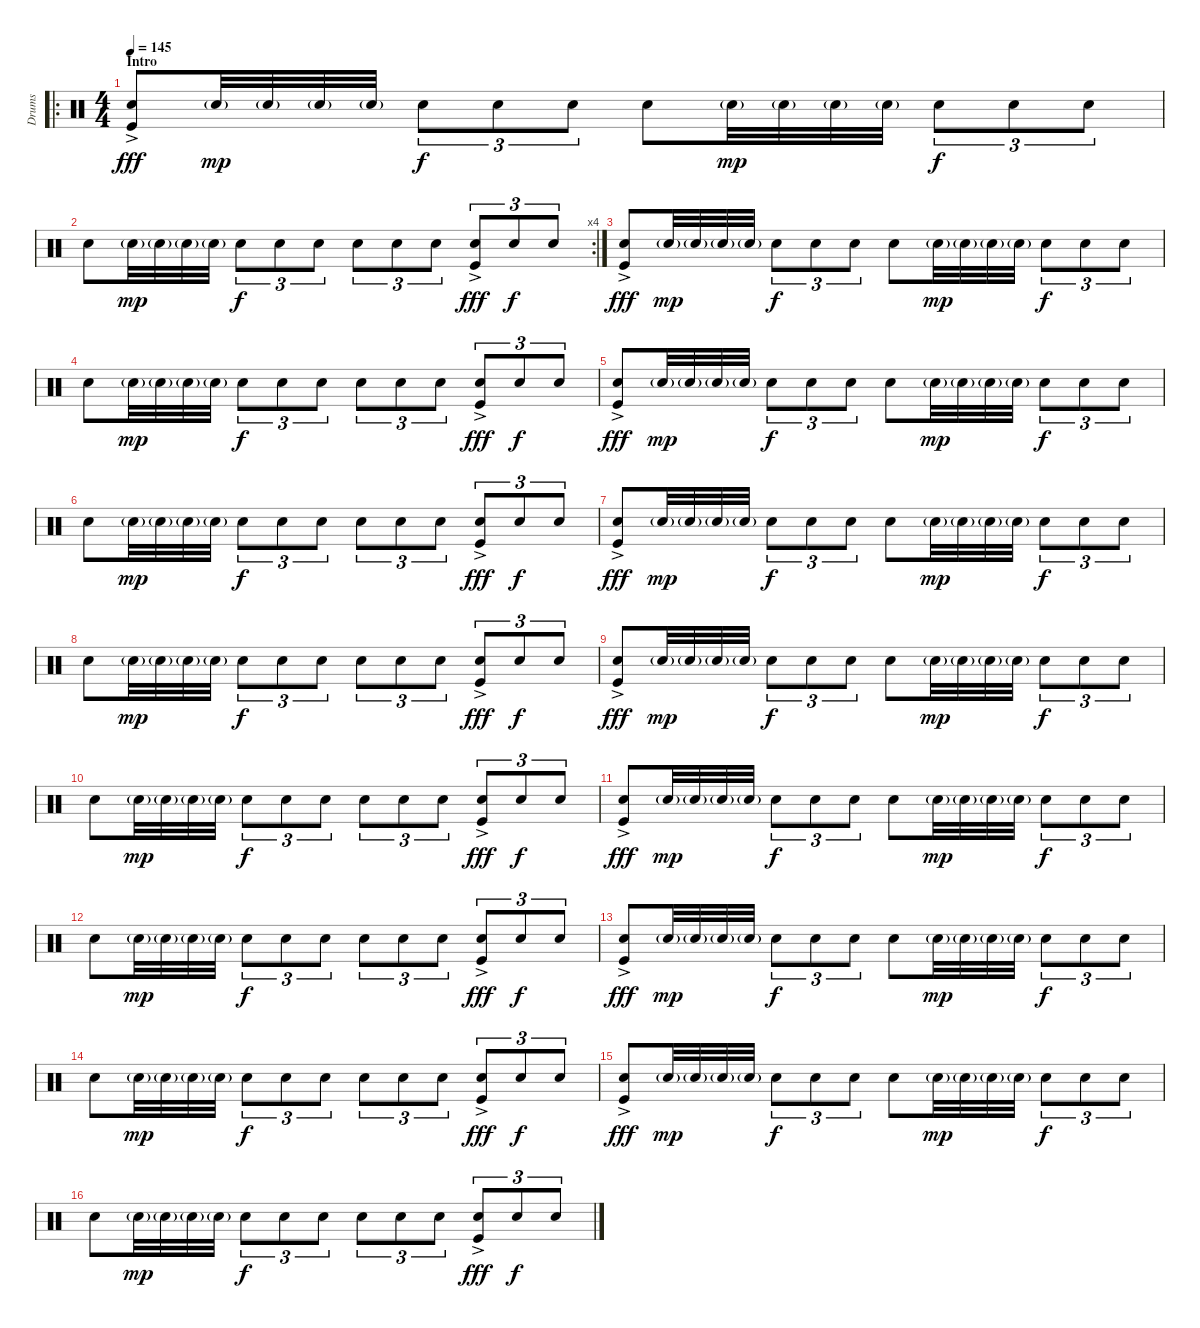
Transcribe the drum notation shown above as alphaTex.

\track ("Drums" "Drums") {instrument percussion}
\staff {score}
\articulation defaults
\ro
\ts (4 4)
\section ("" "Intro")
\tempo 145
\clef neutral
\ks c
("Snare (hit) 2"{ac} "Kick (hit)"{ac}).8{dy fff} "Snare (hit) 2"{g}.32{dy mp} "Snare (hit) 2"{g}.32 "Snare (hit) 2"{g}.32 "Snare (hit) 2"{g}.32 "Snare (hit) 2".8{tu (3 2) dy f} "Snare (hit) 2".8{tu (3 2)} "Snare (hit) 2".8{tu (3 2)} "Snare (hit) 2".8 "Snare (hit) 2"{g}.32{dy mp} "Snare (hit) 2"{g}.32 "Snare (hit) 2"{g}.32 "Snare (hit) 2"{g}.32 "Snare (hit) 2".8{tu (3 2) dy f} "Snare (hit) 2".8{tu (3 2)} "Snare (hit) 2".8{tu (3 2)} |
\rc 4 "Snare (hit) 2".8 "Snare (hit) 2"{g}.32{dy mp} "Snare (hit) 2"{g}.32 "Snare (hit) 2"{g}.32 "Snare (hit) 2"{g}.32 "Snare (hit) 2".8{tu (3 2) dy f} "Snare (hit) 2".8{tu (3 2)} "Snare (hit) 2".8{tu (3 2)} "Snare (hit) 2".8{tu (3 2)} "Snare (hit) 2".8{tu (3 2)} "Snare (hit) 2".8{tu (3 2)}
("Snare (hit) 2"{ac} "Kick (hit)"{ac}).8{tu (3 2) dy fff} "Snare (hit) 2".8{tu (3 2) dy f} "Snare (hit) 2".8{tu (3 2)} |
("Snare (hit) 2"{ac} "Kick (hit)"{ac}).8{dy fff} "Snare (hit) 2"{g}.32{dy mp} "Snare (hit) 2"{g}.32 "Snare (hit) 2"{g}.32 "Snare (hit) 2"{g}.32 "Snare (hit) 2".8{tu (3 2) dy f} "Snare (hit) 2".8{tu (3 2)} "Snare (hit) 2".8{tu (3 2)} "Snare (hit) 2".8 "Snare (hit) 2"{g}.32{dy mp} "Snare (hit) 2"{g}.32 "Snare (hit) 2"{g}.32 "Snare (hit) 2"{g}.32 "Snare (hit) 2".8{tu (3 2) dy f} "Snare (hit) 2".8{tu (3 2)} "Snare (hit) 2".8{tu (3 2)} |
"Snare (hit) 2".8 "Snare (hit) 2"{g}.32{dy mp} "Snare (hit) 2"{g}.32 "Snare (hit) 2"{g}.32 "Snare (hit) 2"{g}.32 "Snare (hit) 2".8{tu (3 2) dy f} "Snare (hit) 2".8{tu (3 2)} "Snare (hit) 2".8{tu (3 2)} "Snare (hit) 2".8{tu (3 2)} "Snare (hit) 2".8{tu (3 2)} "Snare (hit) 2".8{tu (3 2)} ("Snare (hit) 2"{ac} "Kick (hit)"{ac}).8{tu (3 2) dy fff} "Snare (hit) 2".8{tu (3 2) dy f} "Snare (hit) 2".8{tu (3 2)} |
("Snare (hit) 2"{ac} "Kick (hit)"{ac}).8{dy fff} "Snare (hit) 2"{g}.32{dy mp} "Snare (hit) 2"{g}.32 "Snare (hit) 2"{g}.32 "Snare (hit) 2"{g}.32 "Snare (hit) 2".8{tu (3 2) dy f} "Snare (hit) 2".8{tu (3 2)} "Snare (hit) 2".8{tu (3 2)} "Snare (hit) 2".8 "Snare (hit) 2"{g}.32{dy mp} "Snare (hit) 2"{g}.32 "Snare (hit) 2"{g}.32 "Snare (hit) 2"{g}.32 "Snare (hit) 2".8{tu (3 2) dy f} "Snare (hit) 2".8{tu (3 2)} "Snare (hit) 2".8{tu (3 2)} |
"Snare (hit) 2".8 "Snare (hit) 2"{g}.32{dy mp} "Snare (hit) 2"{g}.32 "Snare (hit) 2"{g}.32 "Snare (hit) 2"{g}.32 "Snare (hit) 2".8{tu (3 2) dy f} "Snare (hit) 2".8{tu (3 2)} "Snare (hit) 2".8{tu (3 2)} "Snare (hit) 2".8{tu (3 2)} "Snare (hit) 2".8{tu (3 2)} "Snare (hit) 2".8{tu (3 2)} ("Snare (hit) 2"{ac} "Kick (hit)"{ac}).8{tu (3 2) dy fff} "Snare (hit) 2".8{tu (3 2) dy f} "Snare (hit) 2".8{tu (3 2)} |
("Snare (hit) 2"{ac} "Kick (hit)"{ac}).8{dy fff} "Snare (hit) 2"{g}.32{dy mp} "Snare (hit) 2"{g}.32 "Snare (hit) 2"{g}.32 "Snare (hit) 2"{g}.32 "Snare (hit) 2".8{tu (3 2) dy f} "Snare (hit) 2".8{tu (3 2)} "Snare (hit) 2".8{tu (3 2)} "Snare (hit) 2".8 "Snare (hit) 2"{g}.32{dy mp} "Snare (hit) 2"{g}.32 "Snare (hit) 2"{g}.32 "Snare (hit) 2"{g}.32 "Snare (hit) 2".8{tu (3 2) dy f} "Snare (hit) 2".8{tu (3 2)} "Snare (hit) 2".8{tu (3 2)} |
"Snare (hit) 2".8 "Snare (hit) 2"{g}.32{dy mp} "Snare (hit) 2"{g}.32 "Snare (hit) 2"{g}.32 "Snare (hit) 2"{g}.32 "Snare (hit) 2".8{tu (3 2) dy f} "Snare (hit) 2".8{tu (3 2)} "Snare (hit) 2".8{tu (3 2)} "Snare (hit) 2".8{tu (3 2)} "Snare (hit) 2".8{tu (3 2)} "Snare (hit) 2".8{tu (3 2)} ("Snare (hit) 2"{ac} "Kick (hit)"{ac}).8{tu (3 2) dy fff} "Snare (hit) 2".8{tu (3 2) dy f} "Snare (hit) 2".8{tu (3 2)} |
("Snare (hit) 2"{ac} "Kick (hit)"{ac}).8{dy fff} "Snare (hit) 2"{g}.32{dy mp} "Snare (hit) 2"{g}.32 "Snare (hit) 2"{g}.32 "Snare (hit) 2"{g}.32 "Snare (hit) 2".8{tu (3 2) dy f} "Snare (hit) 2".8{tu (3 2)} "Snare (hit) 2".8{tu (3 2)} "Snare (hit) 2".8 "Snare (hit) 2"{g}.32{dy mp} "Snare (hit) 2"{g}.32 "Snare (hit) 2"{g}.32 "Snare (hit) 2"{g}.32 "Snare (hit) 2".8{tu (3 2) dy f} "Snare (hit) 2".8{tu (3 2)} "Snare (hit) 2".8{tu (3 2)} |
"Snare (hit) 2".8 "Snare (hit) 2"{g}.32{dy mp} "Snare (hit) 2"{g}.32 "Snare (hit) 2"{g}.32 "Snare (hit) 2"{g}.32 "Snare (hit) 2".8{tu (3 2) dy f} "Snare (hit) 2".8{tu (3 2)} "Snare (hit) 2".8{tu (3 2)} "Snare (hit) 2".8{tu (3 2)} "Snare (hit) 2".8{tu (3 2)} "Snare (hit) 2".8{tu (3 2)} ("Snare (hit) 2"{ac} "Kick (hit)"{ac}).8{tu (3 2) dy fff} "Snare (hit) 2".8{tu (3 2) dy f} "Snare (hit) 2".8{tu (3 2)} |
("Snare (hit) 2" "Kick (hit)"{ac}).8{dy fff} "Snare (hit) 2"{g}.32{dy mp} "Snare (hit) 2"{g}.32 "Snare (hit) 2"{g}.32 "Snare (hit) 2"{g}.32 "Snare (hit) 2".8{tu (3 2) dy f} "Snare (hit) 2".8{tu (3 2)} "Snare (hit) 2".8{tu (3 2)} "Snare (hit) 2".8 "Snare (hit) 2"{g}.32{dy mp} "Snare (hit) 2"{g}.32 "Snare (hit) 2"{g}.32 "Snare (hit) 2"{g}.32 "Snare (hit) 2".8{tu (3 2) dy f} "Snare (hit) 2".8{tu (3 2)} "Snare (hit) 2".8{tu (3 2)} |
"Snare (hit) 2".8 "Snare (hit) 2"{g}.32{dy mp} "Snare (hit) 2"{g}.32 "Snare (hit) 2"{g}.32 "Snare (hit) 2"{g}.32 "Snare (hit) 2".8{tu (3 2) dy f} "Snare (hit) 2".8{tu (3 2)} "Snare (hit) 2".8{tu (3 2)} "Snare (hit) 2".8{tu (3 2)} "Snare (hit) 2".8{tu (3 2)} "Snare (hit) 2".8{tu (3 2)} ("Snare (hit) 2"{ac} "Kick (hit)"{ac}).8{tu (3 2) dy fff} "Snare (hit) 2".8{tu (3 2) dy f} "Snare (hit) 2".8{tu (3 2)} |
("Snare (hit) 2"{ac} "Kick (hit)"{ac}).8{dy fff} "Snare (hit) 2"{g}.32{dy mp} "Snare (hit) 2"{g}.32 "Snare (hit) 2"{g}.32 "Snare (hit) 2"{g}.32 "Snare (hit) 2".8{tu (3 2) dy f} "Snare (hit) 2".8{tu (3 2)} "Snare (hit) 2".8{tu (3 2)} "Snare (hit) 2".8 "Snare (hit) 2"{g}.32{dy mp} "Snare (hit) 2"{g}.32 "Snare (hit) 2"{g}.32 "Snare (hit) 2"{g}.32 "Snare (hit) 2".8{tu (3 2) dy f} "Snare (hit) 2".8{tu (3 2)} "Snare (hit) 2".8{tu (3 2)} |
"Snare (hit) 2".8 "Snare (hit) 2"{g}.32{dy mp} "Snare (hit) 2"{g}.32 "Snare (hit) 2"{g}.32 "Snare (hit) 2"{g}.32 "Snare (hit) 2".8{tu (3 2) dy f} "Snare (hit) 2".8{tu (3 2)} "Snare (hit) 2".8{tu (3 2)} "Snare (hit) 2".8{tu (3 2)} "Snare (hit) 2".8{tu (3 2)} "Snare (hit) 2".8{tu (3 2)} ("Snare (hit) 2"{ac} "Kick (hit)"{ac}).8{tu (3 2) dy fff} "Snare (hit) 2".8{tu (3 2) dy f} "Snare (hit) 2".8{tu (3 2)} |
("Snare (hit) 2"{ac} "Kick (hit)"{ac}).8{dy fff} "Snare (hit) 2"{g}.32{dy mp} "Snare (hit) 2"{g}.32 "Snare (hit) 2"{g}.32 "Snare (hit) 2"{g}.32 "Snare (hit) 2".8{tu (3 2) dy f} "Snare (hit) 2".8{tu (3 2)} "Snare (hit) 2".8{tu (3 2)} "Snare (hit) 2".8 "Snare (hit) 2"{g}.32{dy mp} "Snare (hit) 2"{g}.32 "Snare (hit) 2"{g}.32 "Snare (hit) 2"{g}.32 "Snare (hit) 2".8{tu (3 2) dy f} "Snare (hit) 2".8{tu (3 2)} "Snare (hit) 2".8{tu (3 2)} |
"Snare (hit) 2".8 "Snare (hit) 2"{g}.32{dy mp} "Snare (hit) 2"{g}.32 "Snare (hit) 2"{g}.32 "Snare (hit) 2"{g}.32 "Snare (hit) 2".8{tu (3 2) dy f} "Snare (hit) 2".8{tu (3 2)} "Snare (hit) 2".8{tu (3 2)} "Snare (hit) 2".8{tu (3 2)} "Snare (hit) 2".8{tu (3 2)} "Snare (hit) 2".8{tu (3 2)} ("Snare (hit) 2"{ac} "Kick (hit)"{ac}).8{tu (3 2) dy fff} "Snare (hit) 2".8{tu (3 2) dy f} "Snare (hit) 2".8{tu (3 2)}
